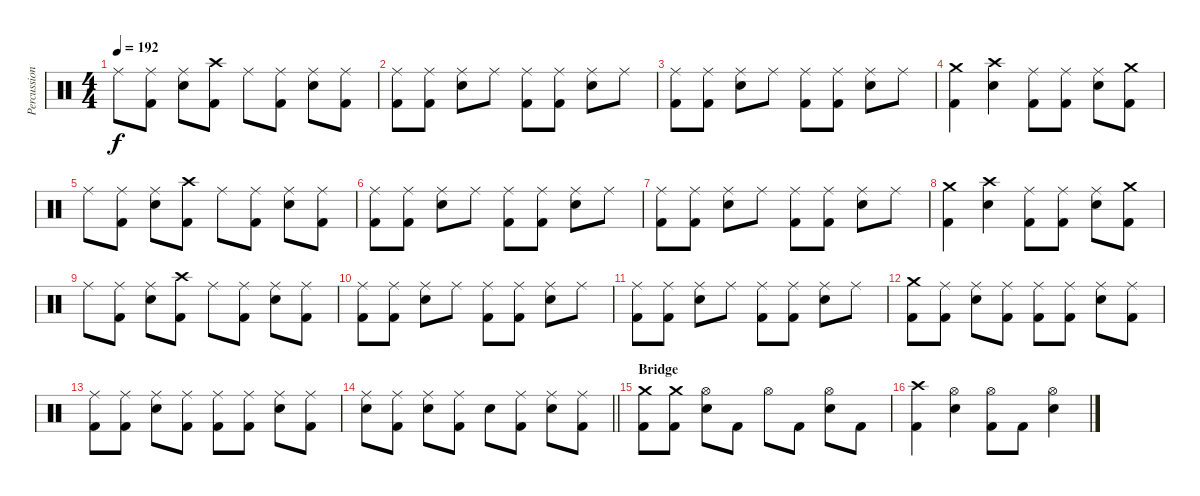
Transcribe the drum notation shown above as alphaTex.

\track ("Percussion" "Percussion") {instrument percussion}
\staff {score}
\articulation defaults
\ts (4 4)
\tempo 192
\clef neutral
\ks c "Ride (middle)".8{dy f}
("Ride (middle)" "Kick (hit) 2").8 ("Ride (middle)" "Electric Snare (hit)").8 ("Crash high (hit)" "Kick (hit) 2").8 "Ride (middle)".8 ("Ride (middle)" "Kick (hit) 2").8 ("Ride (middle)" "Electric Snare (hit)").8 ("Ride (middle)" "Kick (hit) 2").8 |
("Ride (middle)" "Kick (hit) 2").8 ("Ride (middle)" "Kick (hit) 2").8 ("Ride (middle)" "Electric Snare (hit)").8 "Ride (middle)".8 ("Ride (middle)" "Kick (hit) 2").8 ("Ride (middle)" "Kick (hit) 2").8 ("Ride (middle)" "Electric Snare (hit)").8 "Ride (middle)".8 |
("Ride (middle)" "Kick (hit) 2").8 ("Ride (middle)" "Kick (hit) 2").8 ("Ride (middle)" "Electric Snare (hit)").8 "Ride (middle)".8 ("Ride (middle)" "Kick (hit) 2").8 ("Ride (middle)" "Kick (hit) 2").8 ("Ride (middle)" "Electric Snare (hit)").8 "Ride (middle)".8 |
("Crash medium (hit)" "Kick (hit) 2").4 ("Crash high (hit)" "Electric Snare (hit)").4 ("Ride (middle)" "Kick (hit) 2").8 ("Ride (middle)" "Kick (hit) 2").8 ("Ride (middle)" "Electric Snare (hit)").8 ("Crash medium (hit)" "Kick (hit) 2").8 |
"Ride (middle)".8 ("Ride (middle)" "Kick (hit) 2").8 ("Ride (middle)" "Electric Snare (hit)").8 ("Crash high (hit)" "Kick (hit) 2").8 "Ride (middle)".8 ("Ride (middle)" "Kick (hit) 2").8 ("Ride (middle)" "Electric Snare (hit)").8 ("Ride (middle)" "Kick (hit) 2").8 |
("Ride (middle)" "Kick (hit) 2").8 ("Ride (middle)" "Kick (hit) 2").8 ("Ride (middle)" "Electric Snare (hit)").8 "Ride (middle)".8 ("Ride (middle)" "Kick (hit) 2").8 ("Ride (middle)" "Kick (hit) 2").8 ("Ride (middle)" "Electric Snare (hit)").8 "Ride (middle)".8 |
("Ride (middle)" "Kick (hit) 2").8 ("Ride (middle)" "Kick (hit) 2").8 ("Ride (middle)" "Electric Snare (hit)").8 "Ride (middle)".8 ("Ride (middle)" "Kick (hit) 2").8 ("Ride (middle)" "Kick (hit) 2").8 ("Ride (middle)" "Electric Snare (hit)").8 "Ride (middle)".8 |
("Crash medium (hit)" "Kick (hit) 2").4 ("Crash high (hit)" "Electric Snare (hit)").4 ("Ride (middle)" "Kick (hit) 2").8 ("Ride (middle)" "Kick (hit) 2").8 ("Ride (middle)" "Electric Snare (hit)").8 ("Crash medium (hit)" "Kick (hit) 2").8 |
"Ride (middle)".8 ("Ride (middle)" "Kick (hit) 2").8 ("Ride (middle)" "Electric Snare (hit)").8 ("Crash high (hit)" "Kick (hit) 2").8 "Ride (middle)".8 ("Ride (middle)" "Kick (hit) 2").8 ("Ride (middle)" "Electric Snare (hit)").8 ("Ride (middle)" "Kick (hit) 2").8 |
("Ride (middle)" "Kick (hit) 2").8 ("Ride (middle)" "Kick (hit) 2").8 ("Ride (middle)" "Electric Snare (hit)").8 "Ride (middle)".8 ("Ride (middle)" "Kick (hit) 2").8 ("Ride (middle)" "Kick (hit) 2").8 ("Ride (middle)" "Electric Snare (hit)").8 "Ride (middle)".8 |
("Ride (middle)" "Kick (hit) 2").8 ("Ride (middle)" "Kick (hit) 2").8 ("Ride (middle)" "Electric Snare (hit)").8 "Ride (middle)".8 ("Ride (middle)" "Kick (hit) 2").8 ("Ride (middle)" "Kick (hit) 2").8 ("Ride (middle)" "Electric Snare (hit)").8 "Ride (middle)".8 |
("Crash medium (hit)" "Kick (hit) 2").8 ("Ride (middle)" "Kick (hit) 2").8 ("Ride (middle)" "Electric Snare (hit)").8 ("Ride (middle)" "Kick (hit) 2").8 ("Ride (middle)" "Kick (hit) 2").8 ("Ride (middle)" "Kick (hit) 2").8 ("Ride (middle)" "Electric Snare (hit)").8 ("Ride (middle)" "Kick (hit) 2").8 |
("Ride (middle)" "Kick (hit) 2").8 ("Ride (middle)" "Kick (hit) 2").8 ("Ride (middle)" "Electric Snare (hit)").8 ("Ride (middle)" "Kick (hit) 2").8 ("Ride (middle)" "Kick (hit) 2").8 ("Ride (middle)" "Kick (hit) 2").8 ("Ride (middle)" "Electric Snare (hit)").8 ("Ride (middle)" "Kick (hit) 2").8 |
\barLineRight lightlight
("Ride (middle)" "Electric Snare (hit)").8 ("Ride (middle)" "Kick (hit) 2").8 ("Ride (middle)" "Electric Snare (hit)").8 ("Ride (middle)" "Kick (hit) 2").8 "Electric Snare (hit)".8 ("Ride (middle)" "Kick (hit) 2").8 ("Ride (middle)" "Electric Snare (hit)").8 ("Ride (middle)" "Kick (hit) 2").8 |
\section ("" "Bridge")
("Crash medium (hit)" "Kick (hit) 2").8 ("Crash medium (hit)" "Kick (hit) 2").8 ("Hi-Hat (open)" "Electric Snare (hit)").8 "Kick (hit) 2".8 "Hi-Hat (open)".8 "Kick (hit) 2".8 ("Hi-Hat (open)" "Electric Snare (hit)").8 "Kick (hit) 2".8 |
("Crash high (hit)" "Kick (hit) 2").4 ("Hi-Hat (open)" "Electric Snare (hit)").4 ("Hi-Hat (open)" "Kick (hit) 2").8 "Kick (hit) 2".8 ("Hi-Hat (open)" "Electric Snare (hit)").4
